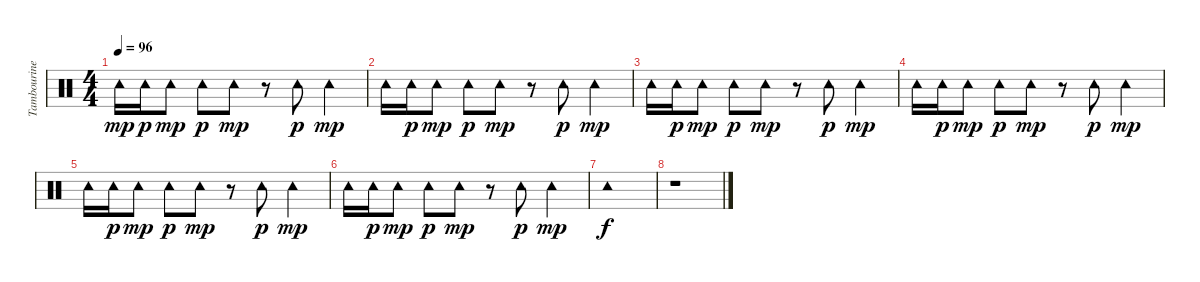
\track ("Tambourine" "Tambourine") {instrument percussion}
\staff {score}
\articulation defaults
\ts (4 4)
\tempo 96
\clef neutral
\ks c "Tambourine (hit)".16{dy mp} "Tambourine (hit)".16{dy p} "Tambourine (hit)".8{dy mp} "Tambourine (hit)".8{dy p} "Tambourine (hit)".8{dy mp}
r.8 "Tambourine (hit)".8{dy p} "Tambourine (hit)".4{dy mp} |
"Tambourine (hit)".16 "Tambourine (hit)".16{dy p} "Tambourine (hit)".8{dy mp} "Tambourine (hit)".8{dy p} "Tambourine (hit)".8{dy mp} r.8 "Tambourine (hit)".8{dy p} "Tambourine (hit)".4{dy mp} |
"Tambourine (hit)".16 "Tambourine (hit)".16{dy p} "Tambourine (hit)".8{dy mp} "Tambourine (hit)".8{dy p} "Tambourine (hit)".8{dy mp} r.8 "Tambourine (hit)".8{dy p} "Tambourine (hit)".4{dy mp} |
"Tambourine (hit)".16 "Tambourine (hit)".16{dy p} "Tambourine (hit)".8{dy mp} "Tambourine (hit)".8{dy p} "Tambourine (hit)".8{dy mp} r.8 "Tambourine (hit)".8{dy p} "Tambourine (hit)".4{dy mp} |
"Tambourine (hit)".16 "Tambourine (hit)".16{dy p} "Tambourine (hit)".8{dy mp} "Tambourine (hit)".8{dy p} "Tambourine (hit)".8{dy mp} r.8 "Tambourine (hit)".8{dy p} "Tambourine (hit)".4{dy mp} |
"Tambourine (hit)".16 "Tambourine (hit)".16{dy p} "Tambourine (hit)".8{dy mp} "Tambourine (hit)".8{dy p} "Tambourine (hit)".8{dy mp} r.8 "Tambourine (hit)".8{dy p} "Tambourine (hit)".4{dy mp} |
"Tambourine (hit)".1{dy f} |
r.1
